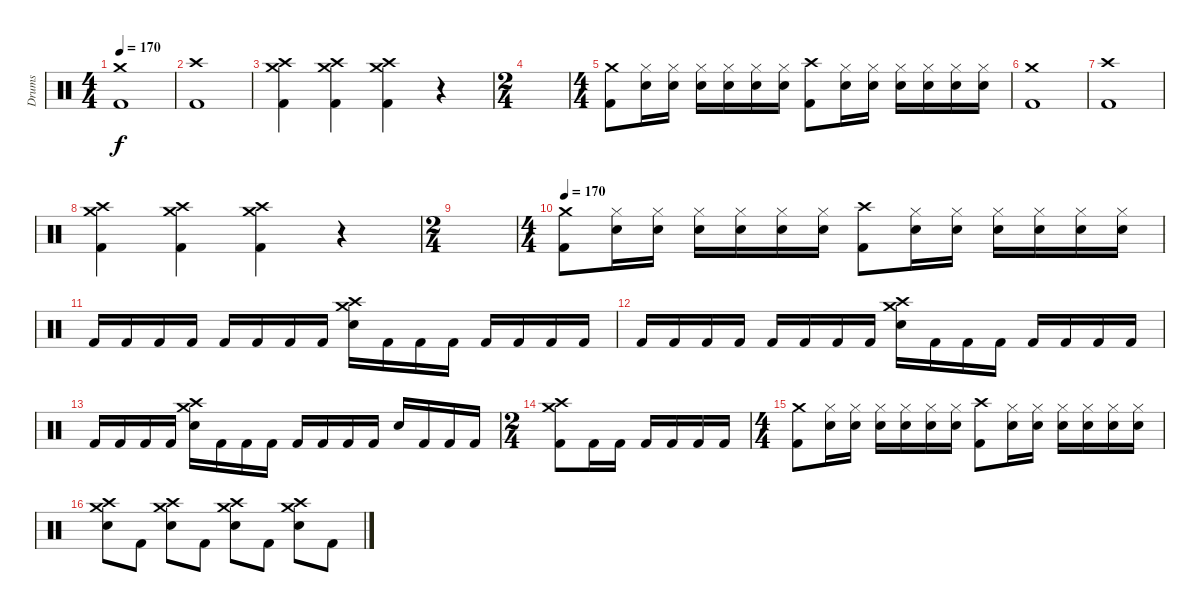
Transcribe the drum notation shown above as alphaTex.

\track ("Drums" "Drums") {instrument percussion}
\staff {score}
\articulation defaults
\ts (4 4)
\tempo 170
\clef neutral
\ks c
("Crash medium (hit)" "Kick (hit) 2").1{dy f} |
("Crash high (hit)" "Kick (hit) 2").1 |
("Crash high (hit)" "Crash medium (hit)" "Kick (hit) 2").4 ("Crash high (hit)" "Crash medium (hit)" "Kick (hit) 2").4 ("Crash high (hit)" "Crash medium (hit)" "Kick (hit) 2").4 r.4 |
\ts (2 4)
|
\ts (4 4)
("Crash medium (hit)" "Kick (hit) 2").8 ("Hi-Hat (closed)" "Electric Snare (hit)").16 ("Hi-Hat (closed)" "Electric Snare (hit)").16 ("Hi-Hat (closed)" "Electric Snare (hit)").16 ("Hi-Hat (closed)" "Electric Snare (hit)").16 ("Hi-Hat (closed)" "Electric Snare (hit)").16 ("Hi-Hat (closed)" "Electric Snare (hit)").16 ("Crash high (hit)" "Kick (hit) 2").8 ("Hi-Hat (closed)" "Electric Snare (hit)").16 ("Hi-Hat (closed)" "Electric Snare (hit)").16 ("Hi-Hat (closed)" "Electric Snare (hit)").16 ("Hi-Hat (closed)" "Electric Snare (hit)").16 ("Hi-Hat (closed)" "Electric Snare (hit)").16 ("Hi-Hat (closed)" "Electric Snare (hit)").16 |
("Crash medium (hit)" "Kick (hit) 2").1 |
("Crash high (hit)" "Kick (hit) 2").1 |
("Crash high (hit)" "Crash medium (hit)" "Kick (hit) 2").4 ("Crash high (hit)" "Crash medium (hit)" "Kick (hit) 2").4 ("Crash high (hit)" "Crash medium (hit)" "Kick (hit) 2").4 r.4 |
\ts (2 4)
|
\ts (4 4)
\tempo 170
("Crash medium (hit)" "Kick (hit) 2").8 ("Hi-Hat (closed)" "Electric Snare (hit)").16 ("Hi-Hat (closed)" "Electric Snare (hit)").16 ("Hi-Hat (closed)" "Electric Snare (hit)").16 ("Hi-Hat (closed)" "Electric Snare (hit)").16 ("Hi-Hat (closed)" "Electric Snare (hit)").16 ("Hi-Hat (closed)" "Electric Snare (hit)").16 ("Crash high (hit)" "Kick (hit) 2").8 ("Hi-Hat (closed)" "Electric Snare (hit)").16 ("Hi-Hat (closed)" "Electric Snare (hit)").16 ("Hi-Hat (closed)" "Electric Snare (hit)").16 ("Hi-Hat (closed)" "Electric Snare (hit)").16 ("Hi-Hat (closed)" "Electric Snare (hit)").16 ("Hi-Hat (closed)" "Electric Snare (hit)").16 |
"Kick (hit) 2".16 "Kick (hit) 2".16 "Kick (hit) 2".16 "Kick (hit) 2".16 "Kick (hit) 2".16 "Kick (hit) 2".16 "Kick (hit) 2".16 "Kick (hit) 2".16 ("Crash high (hit)" "Crash medium (hit)" "Electric Snare (hit)").16 "Kick (hit) 2".16 "Kick (hit) 2".16 "Kick (hit) 2".16 "Kick (hit) 2".16 "Kick (hit) 2".16 "Kick (hit) 2".16 "Kick (hit) 2".16 |
"Kick (hit) 2".16 "Kick (hit) 2".16 "Kick (hit) 2".16 "Kick (hit) 2".16 "Kick (hit) 2".16 "Kick (hit) 2".16 "Kick (hit) 2".16 "Kick (hit) 2".16 ("Crash high (hit)" "Crash medium (hit)" "Electric Snare (hit)").16 "Kick (hit) 2".16 "Kick (hit) 2".16 "Kick (hit) 2".16 "Kick (hit) 2".16 "Kick (hit) 2".16 "Kick (hit) 2".16 "Kick (hit) 2".16 |
"Kick (hit) 2".16 "Kick (hit) 2".16 "Kick (hit) 2".16 "Kick (hit) 2".16 ("Crash medium (hit)" "Crash high (hit)" "Electric Snare (hit)").16 "Kick (hit) 2".16 "Kick (hit) 2".16 "Kick (hit) 2".16 "Kick (hit) 2".16 "Kick (hit) 2".16 "Kick (hit) 2".16 "Kick (hit) 2".16 "Electric Snare (hit)".16 "Kick (hit) 2".16 "Kick (hit) 2".16 "Kick (hit) 2".16 |
\ts (2 4)
("Crash medium (hit)" "Crash high (hit)" "Kick (hit) 2").8 "Kick (hit) 2".16 "Kick (hit) 2".16 "Kick (hit) 2".16 "Kick (hit) 2".16 "Kick (hit) 2".16 "Kick (hit) 2".16 |
\ts (4 4)
("Crash medium (hit)" "Kick (hit) 2").8 ("Hi-Hat (closed)" "Electric Snare (hit)").16 ("Hi-Hat (closed)" "Electric Snare (hit)").16 ("Hi-Hat (closed)" "Electric Snare (hit)").16 ("Hi-Hat (closed)" "Electric Snare (hit)").16 ("Hi-Hat (closed)" "Electric Snare (hit)").16 ("Hi-Hat (closed)" "Electric Snare (hit)").16 ("Crash high (hit)" "Kick (hit) 2").8 ("Hi-Hat (closed)" "Electric Snare (hit)").16 ("Hi-Hat (closed)" "Electric Snare (hit)").16 ("Hi-Hat (closed)" "Electric Snare (hit)").16 ("Hi-Hat (closed)" "Electric Snare (hit)").16 ("Hi-Hat (closed)" "Electric Snare (hit)").16 ("Hi-Hat (closed)" "Electric Snare (hit)").16 |
("Crash high (hit)" "Crash medium (hit)" "Electric Snare (hit)").8 "Kick (hit) 2".8 ("Crash high (hit)" "Crash medium (hit)" "Electric Snare (hit)").8 "Kick (hit) 2".8 ("Crash high (hit)" "Crash medium (hit)" "Electric Snare (hit)").8 "Kick (hit) 2".8 ("Crash high (hit)" "Crash medium (hit)" "Electric Snare (hit)").8 "Kick (hit) 2".8
